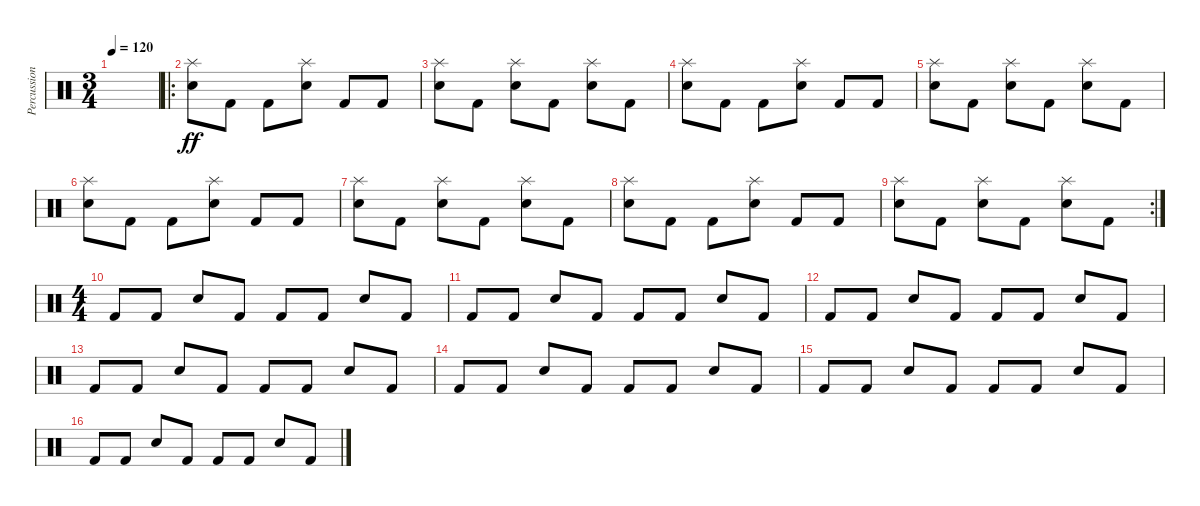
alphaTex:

\track ("Percussion" "Percussion") {instrument percussion}
\staff {score}
\articulation defaults
\ts (3 4)
\tempo 120
\clef neutral
\ks c
|
\ro
("Splash (hit)" "Electric Snare (hit)").8{dy ff} "Kick (hit) 2".8 "Kick (hit) 2".8 ("Splash (hit)" "Electric Snare (hit)").8 "Kick (hit) 2".8 "Kick (hit) 2".8 |
("Splash (hit)" "Electric Snare (hit)").8 "Kick (hit) 2".8 ("Splash (hit)" "Electric Snare (hit)").8 "Kick (hit) 2".8 ("Splash (hit)" "Electric Snare (hit)").8 "Kick (hit) 2".8 |
("Splash (hit)" "Electric Snare (hit)").8 "Kick (hit) 2".8 "Kick (hit) 2".8 ("Splash (hit)" "Electric Snare (hit)").8 "Kick (hit) 2".8 "Kick (hit) 2".8 |
("Splash (hit)" "Electric Snare (hit)").8 "Kick (hit) 2".8 ("Splash (hit)" "Electric Snare (hit)").8 "Kick (hit) 2".8 ("Splash (hit)" "Electric Snare (hit)").8 "Kick (hit) 2".8 |
("Splash (hit)" "Electric Snare (hit)").8 "Kick (hit) 2".8 "Kick (hit) 2".8 ("Splash (hit)" "Electric Snare (hit)").8 "Kick (hit) 2".8 "Kick (hit) 2".8 |
("Splash (hit)" "Electric Snare (hit)").8 "Kick (hit) 2".8 ("Splash (hit)" "Electric Snare (hit)").8 "Kick (hit) 2".8 ("Splash (hit)" "Electric Snare (hit)").8 "Kick (hit) 2".8 |
("Splash (hit)" "Electric Snare (hit)").8 "Kick (hit) 2".8 "Kick (hit) 2".8 ("Splash (hit)" "Electric Snare (hit)").8 "Kick (hit) 2".8 "Kick (hit) 2".8 |
\rc 2
("Splash (hit)" "Electric Snare (hit)").8 "Kick (hit) 2".8 ("Splash (hit)" "Electric Snare (hit)").8 "Kick (hit) 2".8 ("Splash (hit)" "Electric Snare (hit)").8 "Kick (hit) 2".8 |
\ts (4 4)
"Kick (hit) 2".8 "Kick (hit) 2".8 "Electric Snare (hit)".8 "Kick (hit) 2".8 "Kick (hit) 2".8 "Kick (hit) 2".8 "Electric Snare (hit)".8 "Kick (hit) 2".8 |
"Kick (hit) 2".8 "Kick (hit) 2".8 "Electric Snare (hit)".8 "Kick (hit) 2".8 "Kick (hit) 2".8 "Kick (hit) 2".8 "Electric Snare (hit)".8 "Kick (hit) 2".8 |
"Kick (hit) 2".8 "Kick (hit) 2".8 "Electric Snare (hit)".8 "Kick (hit) 2".8 "Kick (hit) 2".8 "Kick (hit) 2".8 "Electric Snare (hit)".8 "Kick (hit) 2".8 |
"Kick (hit) 2".8 "Kick (hit) 2".8 "Electric Snare (hit)".8 "Kick (hit) 2".8 "Kick (hit) 2".8 "Kick (hit) 2".8 "Electric Snare (hit)".8 "Kick (hit) 2".8 |
"Kick (hit) 2".8 "Kick (hit) 2".8 "Electric Snare (hit)".8 "Kick (hit) 2".8 "Kick (hit) 2".8 "Kick (hit) 2".8 "Electric Snare (hit)".8 "Kick (hit) 2".8 |
"Kick (hit) 2".8 "Kick (hit) 2".8 "Electric Snare (hit)".8 "Kick (hit) 2".8 "Kick (hit) 2".8 "Kick (hit) 2".8 "Electric Snare (hit)".8 "Kick (hit) 2".8 |
"Kick (hit) 2".8 "Kick (hit) 2".8 "Electric Snare (hit)".8 "Kick (hit) 2".8 "Kick (hit) 2".8 "Kick (hit) 2".8 "Electric Snare (hit)".8 "Kick (hit) 2".8
